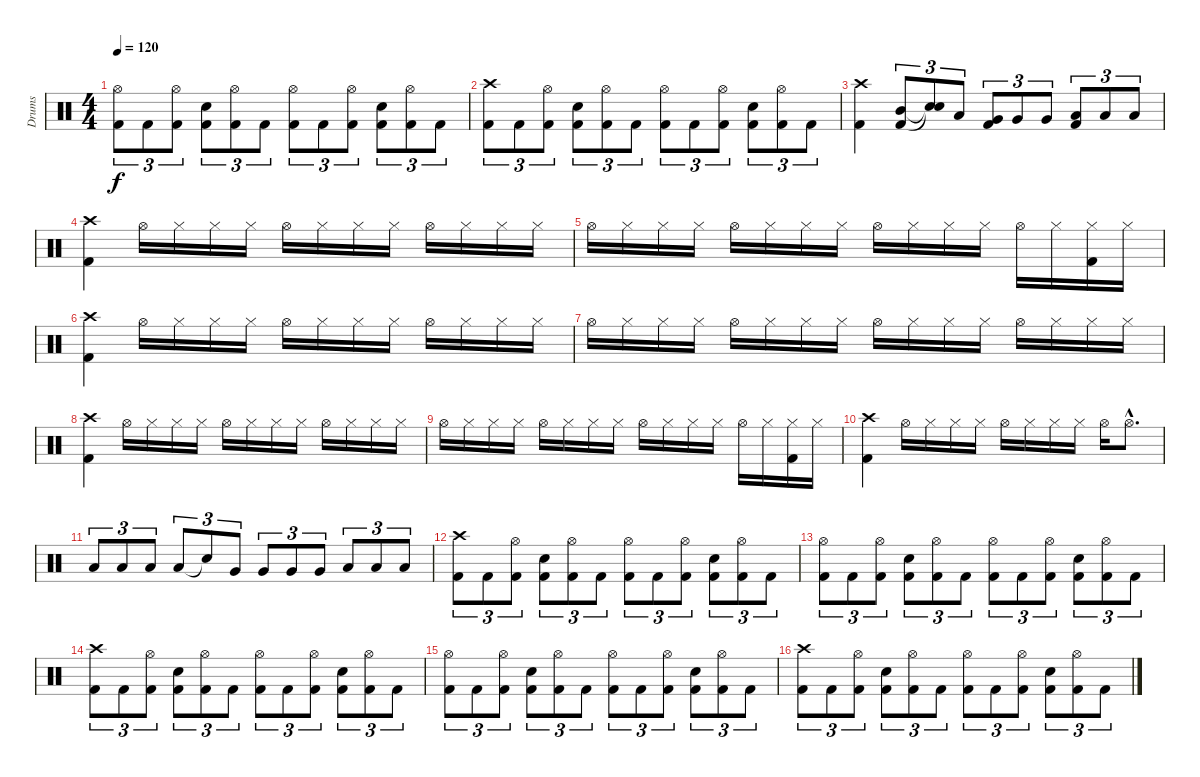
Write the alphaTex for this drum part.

\track ("Drums" "Drums") {instrument percussion}
\staff {score}
\articulation defaults
\ts (4 4)
\tempo 120
\clef neutral
\ks c
("Hi-Hat (open)" "Kick (hit) 2").8{tu (3 2) dy f} "Kick (hit) 2".8{tu (3 2)} ("Hi-Hat (open)" "Kick (hit) 2").8{tu (3 2)} ("Electric Snare (hit)" "Kick (hit) 2").8{tu (3 2)} ("Hi-Hat (open)" "Kick (hit) 2").8{tu (3 2)} "Kick (hit) 2".8{tu (3 2)} ("Hi-Hat (open)" "Kick (hit) 2").8{tu (3 2)} "Kick (hit) 2".8{tu (3 2)} ("Hi-Hat (open)" "Kick (hit) 2").8{tu (3 2)} ("Electric Snare (hit)" "Kick (hit) 2").8{tu (3 2)} ("Hi-Hat (open)" "Kick (hit) 2").8{tu (3 2)} "Kick (hit) 2".8{tu (3 2)} |
("Crash high (hit)" "Kick (hit) 2").8{tu (3 2)} "Kick (hit) 2".8{tu (3 2)} ("Hi-Hat (open)" "Kick (hit) 2").8{tu (3 2)} ("Electric Snare (hit)" "Kick (hit) 2").8{tu (3 2)} ("Hi-Hat (open)" "Kick (hit) 2").8{tu (3 2)} "Kick (hit) 2".8{tu (3 2)} ("Hi-Hat (open)" "Kick (hit) 2").8{tu (3 2)} "Kick (hit) 2".8{tu (3 2)} ("Hi-Hat (open)" "Kick (hit) 2").8{tu (3 2)} ("Electric Snare (hit)" "Kick (hit) 2").8{tu (3 2)} ("Hi-Hat (open)" "Kick (hit) 2").8{tu (3 2)} "Kick (hit) 2".8{tu (3 2)} |
("Crash high (hit)" "Kick (hit) 2").4 ("Kick (hit) 2" "Mid Tom (hit)").8{tu (3 2)} ("Snare (hit)"{t} "Snare (hit)"{t}).8{tu (3 2)} "Low Tom (hit)".8{tu (3 2)} ("Kick (hit) 2" "Very Low Tom (hit)").8{tu (3 2)} "Very Low Tom (hit)".8{tu (3 2)} "Very Low Tom (hit)".8{tu (3 2)} ("Kick (hit) 2" "Low Floor Tom (hit)").8{tu (3 2)} "Low Floor Tom (hit)".8{tu (3 2)} "Low Floor Tom (hit)".8{tu (3 2)} |
("Crash high (hit)" "Kick (hit) 2").4 "Hi-Hat (open)".16 "Hi-Hat (closed)".16 "Hi-Hat (closed)".16 "Hi-Hat (closed)".16 "Hi-Hat (open)".16 "Hi-Hat (closed)".16 "Hi-Hat (closed)".16 "Hi-Hat (closed)".16 "Hi-Hat (open)".16 "Hi-Hat (closed)".16 "Hi-Hat (closed)".16 "Hi-Hat (closed)".16 |
"Hi-Hat (open)".16 "Hi-Hat (closed)".16 "Hi-Hat (closed)".16 "Hi-Hat (closed)".16 "Hi-Hat (open)".16 "Hi-Hat (closed)".16 "Hi-Hat (closed)".16 "Hi-Hat (closed)".16 "Hi-Hat (open)".16 "Hi-Hat (closed)".16 "Hi-Hat (closed)".16 "Hi-Hat (closed)".16 "Hi-Hat (open)".16 "Hi-Hat (closed)".16 ("Hi-Hat (closed)" "Kick (hit) 2").16 "Hi-Hat (closed)".16 |
("Crash high (hit)" "Kick (hit) 2").4 "Hi-Hat (open)".16 "Hi-Hat (closed)".16 "Hi-Hat (closed)".16 "Hi-Hat (closed)".16 "Hi-Hat (open)".16 "Hi-Hat (closed)".16 "Hi-Hat (closed)".16 "Hi-Hat (closed)".16 "Hi-Hat (open)".16 "Hi-Hat (closed)".16 "Hi-Hat (closed)".16 "Hi-Hat (closed)".16 |
"Hi-Hat (open)".16 "Hi-Hat (closed)".16 "Hi-Hat (closed)".16 "Hi-Hat (closed)".16 "Hi-Hat (open)".16 "Hi-Hat (closed)".16 "Hi-Hat (closed)".16 "Hi-Hat (closed)".16 "Hi-Hat (open)".16 "Hi-Hat (closed)".16 "Hi-Hat (closed)".16 "Hi-Hat (closed)".16 "Hi-Hat (open)".16 "Hi-Hat (closed)".16 "Hi-Hat (closed)".16 "Hi-Hat (closed)".16 |
("Crash high (hit)" "Kick (hit) 2").4 "Hi-Hat (open)".16 "Hi-Hat (closed)".16 "Hi-Hat (closed)".16 "Hi-Hat (closed)".16 "Hi-Hat (open)".16 "Hi-Hat (closed)".16 "Hi-Hat (closed)".16 "Hi-Hat (closed)".16 "Hi-Hat (open)".16 "Hi-Hat (closed)".16 "Hi-Hat (closed)".16 "Hi-Hat (closed)".16 |
"Hi-Hat (open)".16 "Hi-Hat (closed)".16 "Hi-Hat (closed)".16 "Hi-Hat (closed)".16 "Hi-Hat (open)".16 "Hi-Hat (closed)".16 "Hi-Hat (closed)".16 "Hi-Hat (closed)".16 "Hi-Hat (open)".16 "Hi-Hat (closed)".16 "Hi-Hat (closed)".16 "Hi-Hat (closed)".16 "Hi-Hat (open)".16 "Hi-Hat (closed)".16 ("Hi-Hat (closed)" "Kick (hit) 2").16 "Hi-Hat (closed)".16 |
("Crash high (hit)" "Kick (hit) 2").4 "Hi-Hat (open)".16 "Hi-Hat (closed)".16 "Hi-Hat (closed)".16 "Hi-Hat (closed)".16 "Hi-Hat (open)".16 "Hi-Hat (closed)".16 "Hi-Hat (closed)".16 "Hi-Hat (closed)".16 "Hi-Hat (open)".16 "Hi-Hat (open)"{hac}.8{d} |
"Low Tom (hit)".8{tu (3 2)} "Low Tom (hit)".8{tu (3 2)} "Low Tom (hit)".8{tu (3 2)} "Low Tom (hit)".8{tu (3 2)} "Snare (hit)"{t}.8{tu (3 2)} "Very Low Tom (hit)".8{tu (3 2)} "Very Low Tom (hit)".8{tu (3 2)} "Very Low Tom (hit)".8{tu (3 2)} "Very Low Tom (hit)".8{tu (3 2)} "Low Floor Tom (hit)".8{tu (3 2)} "Low Floor Tom (hit)".8{tu (3 2)} "Low Floor Tom (hit)".8{tu (3 2)} |
("Crash high (hit)" "Kick (hit) 2").8{tu (3 2)} "Kick (hit) 2".8{tu (3 2)} ("Hi-Hat (open)" "Kick (hit) 2").8{tu (3 2)} ("Electric Snare (hit)" "Kick (hit) 2").8{tu (3 2)} ("Hi-Hat (open)" "Kick (hit) 2").8{tu (3 2)} "Kick (hit) 2".8{tu (3 2)} ("Hi-Hat (open)" "Kick (hit) 2").8{tu (3 2)} "Kick (hit) 2".8{tu (3 2)} ("Hi-Hat (open)" "Kick (hit) 2").8{tu (3 2)} ("Snare (hit) 2" "Kick (hit) 2").8{tu (3 2)} ("Hi-Hat (open)" "Kick (hit) 2").8{tu (3 2)} "Kick (hit) 2".8{tu (3 2)} |
("Hi-Hat (open)" "Kick (hit) 2").8{tu (3 2)} "Kick (hit) 2".8{tu (3 2)} ("Hi-Hat (open)" "Kick (hit) 2").8{tu (3 2)} ("Electric Snare (hit)" "Kick (hit) 2").8{tu (3 2)} ("Hi-Hat (open)" "Kick (hit) 2").8{tu (3 2)} "Kick (hit) 2".8{tu (3 2)} ("Hi-Hat (open)" "Kick (hit) 2").8{tu (3 2)} "Kick (hit) 2".8{tu (3 2)} ("Hi-Hat (open)" "Kick (hit) 2").8{tu (3 2)} ("Electric Snare (hit)" "Kick (hit) 2").8{tu (3 2)} ("Hi-Hat (open)" "Kick (hit) 2").8{tu (3 2)} "Kick (hit) 2".8{tu (3 2)} |
("Crash high (hit)" "Kick (hit) 2").8{tu (3 2)} "Kick (hit) 2".8{tu (3 2)} ("Hi-Hat (open)" "Kick (hit) 2").8{tu (3 2)} ("Electric Snare (hit)" "Kick (hit) 2").8{tu (3 2)} ("Hi-Hat (open)" "Kick (hit) 2").8{tu (3 2)} "Kick (hit) 2".8{tu (3 2)} ("Hi-Hat (open)" "Kick (hit) 2").8{tu (3 2)} "Kick (hit) 2".8{tu (3 2)} ("Hi-Hat (open)" "Kick (hit) 2").8{tu (3 2)} ("Electric Snare (hit)" "Kick (hit) 2").8{tu (3 2)} ("Hi-Hat (open)" "Kick (hit) 2").8{tu (3 2)} "Kick (hit) 2".8{tu (3 2)} |
("Hi-Hat (open)" "Kick (hit) 2").8{tu (3 2)} "Kick (hit) 2".8{tu (3 2)} ("Hi-Hat (open)" "Kick (hit) 2").8{tu (3 2)} ("Electric Snare (hit)" "Kick (hit) 2").8{tu (3 2)} ("Hi-Hat (open)" "Kick (hit) 2").8{tu (3 2)} "Kick (hit) 2".8{tu (3 2)} ("Hi-Hat (open)" "Kick (hit) 2").8{tu (3 2)} "Kick (hit) 2".8{tu (3 2)} ("Hi-Hat (open)" "Kick (hit) 2").8{tu (3 2)} ("Electric Snare (hit)" "Kick (hit) 2").8{tu (3 2)} ("Hi-Hat (open)" "Kick (hit) 2").8{tu (3 2)} "Kick (hit) 2".8{tu (3 2)} |
("Crash high (hit)" "Kick (hit) 2").8{tu (3 2)} "Kick (hit) 2".8{tu (3 2)} ("Hi-Hat (open)" "Kick (hit) 2").8{tu (3 2)} ("Electric Snare (hit)" "Kick (hit) 2").8{tu (3 2)} ("Hi-Hat (open)" "Kick (hit) 2").8{tu (3 2)} "Kick (hit) 2".8{tu (3 2)} ("Hi-Hat (open)" "Kick (hit) 2").8{tu (3 2)} "Kick (hit) 2".8{tu (3 2)} ("Hi-Hat (open)" "Kick (hit) 2").8{tu (3 2)} ("Electric Snare (hit)" "Kick (hit) 2").8{tu (3 2)} ("Hi-Hat (open)" "Kick (hit) 2").8{tu (3 2)} "Kick (hit) 2".8{tu (3 2)}
